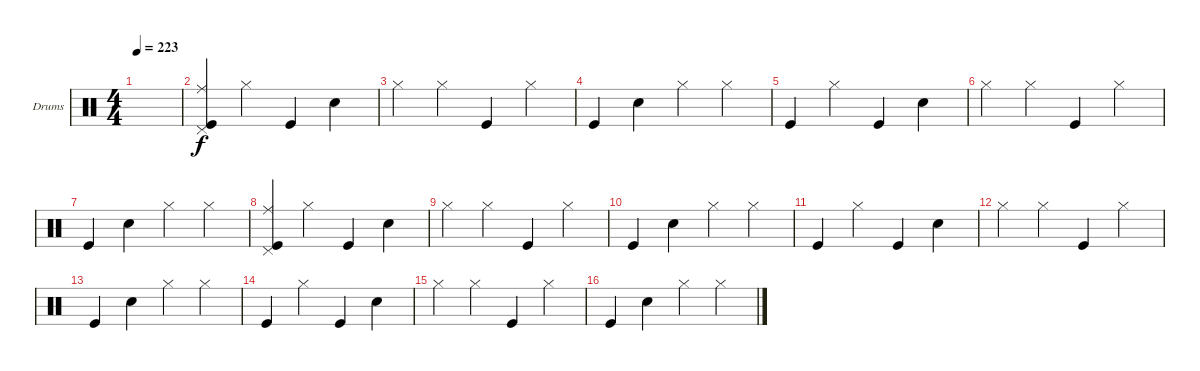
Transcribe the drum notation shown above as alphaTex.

\defaultSystemsLayout 4
\bracketExtendMode groupsimilarinstruments
\firstSystemTrackNameOrientation horizontal
\otherSystemsTrackNameOrientation horizontal
\track ("Drumkit" "Drums") {instrument percussion}
\staff {score}
\articulation defaults
\ts (4 4)
\tempo 223
\clef neutral
\ks c
|
("Kick (hit)" "Ride (middle)" "Pedal Hi-Hat (hit)").4 "Hi-Hat (closed)".4 "Kick (hit)".4 "Snare (hit) 2".4 |
"Hi-Hat (closed)".4 "Hi-Hat (closed)".4 "Kick (hit)".4 "Hi-Hat (closed)".4 |
"Kick (hit)".4 "Snare (hit) 2".4 "Hi-Hat (closed)".4 "Hi-Hat (closed)".4 |
"Kick (hit)".4 "Hi-Hat (closed)".4 "Kick (hit)".4 "Snare (hit) 2".4 |
"Hi-Hat (closed)".4 "Hi-Hat (closed)".4 "Kick (hit)".4 "Hi-Hat (closed)".4 |
"Kick (hit)".4 "Snare (hit) 2".4 "Hi-Hat (closed)".4 "Hi-Hat (closed)".4 |
("Kick (hit)" "Ride (middle)" "Pedal Hi-Hat (hit)").4 "Hi-Hat (closed)".4 "Kick (hit)".4 "Snare (hit) 2".4 |
"Hi-Hat (closed)".4 "Hi-Hat (closed)".4 "Kick (hit)".4 "Hi-Hat (closed)".4 |
"Kick (hit)".4 "Snare (hit) 2".4 "Hi-Hat (closed)".4 "Hi-Hat (closed)".4 |
"Kick (hit)".4 "Hi-Hat (closed)".4 "Kick (hit)".4 "Snare (hit) 2".4 |
"Hi-Hat (closed)".4 "Hi-Hat (closed)".4 "Kick (hit)".4 "Hi-Hat (closed)".4 |
"Kick (hit)".4 "Snare (hit) 2".4 "Hi-Hat (closed)".4 "Hi-Hat (closed)".4 |
"Kick (hit)".4 "Hi-Hat (closed)".4 "Kick (hit)".4 "Snare (hit) 2".4 |
"Hi-Hat (closed)".4 "Hi-Hat (closed)".4 "Kick (hit)".4 "Hi-Hat (closed)".4 |
"Kick (hit)".4 "Snare (hit) 2".4 "Hi-Hat (closed)".4 "Hi-Hat (closed)".4
